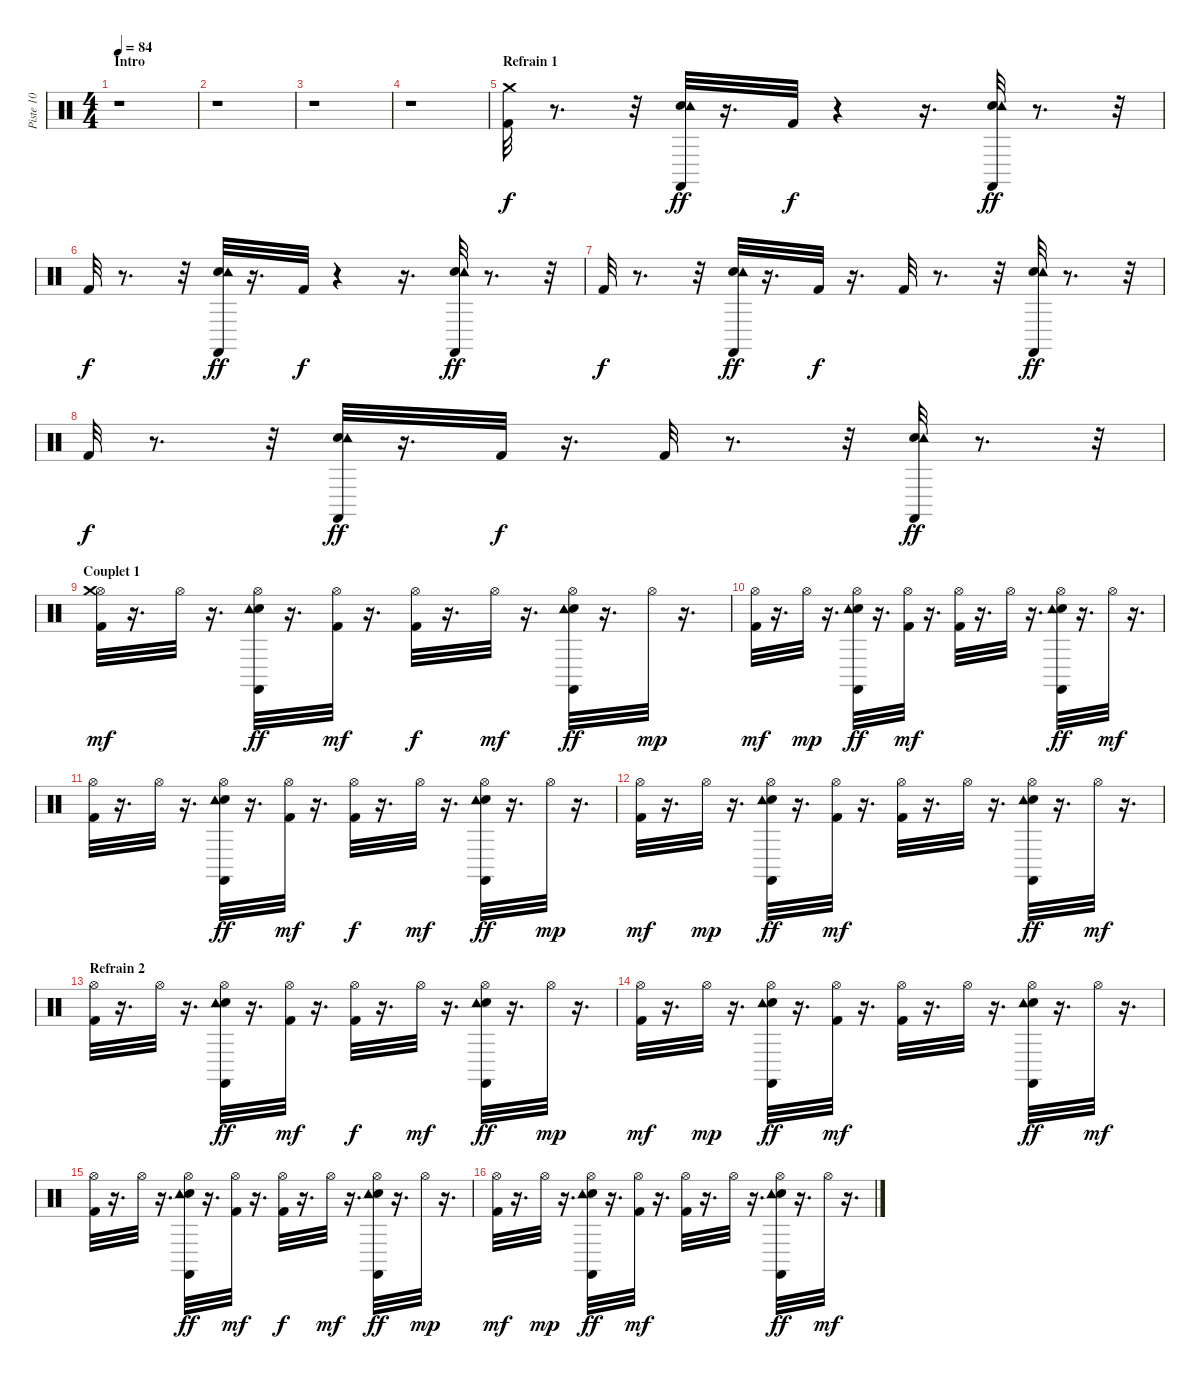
\track ("Piste 10" "Piste 10") {instrument percussion}
\staff {score}
\articulation defaults
\ts (4 4)
\section ("" "Intro")
\tempo 84
\clef neutral
\ks c
r.1{dy f} |
r.1 |
r.1 |
r.1 |
\section ("" "Refrain 1")
("Kick (hit) 2" "Crash medium (hit)").32 r.8{d} r.32 ("Hand Clap (hit)" "Tambourine (hit)" "Castanets (hit)").32{dy ff} r.16{d} "Kick (hit) 2".32{dy f} r.4 r.16{d} ("Hand Clap (hit)" "Tambourine (hit)" "Castanets (hit)").32{dy ff} r.8{d} r.32 |
"Kick (hit) 2".32{dy f} r.8{d} r.32 ("Hand Clap (hit)" "Tambourine (hit)" "Castanets (hit)").32{dy ff} r.16{d} "Kick (hit) 2".32{dy f} r.4 r.16{d} ("Hand Clap (hit)" "Tambourine (hit)" "Castanets (hit)").32{dy ff} r.8{d} r.32 |
"Kick (hit) 2".32{dy f} r.8{d} r.32 ("Hand Clap (hit)" "Tambourine (hit)" "Castanets (hit)").32{dy ff} r.16{d} "Kick (hit) 2".32{dy f} r.16{d} "Kick (hit) 2".32 r.8{d} r.32 ("Hand Clap (hit)" "Tambourine (hit)" "Castanets (hit)").32{dy ff} r.8{d} r.32 |
"Kick (hit) 2".32{dy f} r.8{d} r.32 ("Hand Clap (hit)" "Tambourine (hit)" "Castanets (hit)").32{dy ff} r.16{d} "Kick (hit) 2".32{dy f} r.16{d} "Kick (hit) 2".32 r.8{d} r.32 ("Hand Clap (hit)" "Tambourine (hit)" "Castanets (hit)").32{dy ff} r.8{d} r.32 |
\section ("" "Couplet 1")
("Kick (hit) 2" "Hi-Hat (open)" "Crash medium (hit)").32{dy mf} r.16{d} "Hi-Hat (open)".32 r.16{d} ("Hi-Hat (open)" "Hand Clap (hit)" "Tambourine (hit)" "Castanets (hit)").32{dy ff} r.16{d} ("Hi-Hat (open)" "Kick (hit) 2").32{dy mf} r.16{d} ("Hi-Hat (open)" "Kick (hit) 2").32{dy f} r.16{d} "Hi-Hat (open)".32{dy mf} r.16{d} ("Hi-Hat (open)" "Hand Clap (hit)" "Tambourine (hit)" "Castanets (hit)").32{dy ff} r.16{d} "Hi-Hat (open)".32{dy mp} r.16{d} |
("Kick (hit) 2" "Hi-Hat (open)").32{dy mf} r.16{d} "Hi-Hat (open)".32{dy mp} r.16{d} ("Hi-Hat (open)" "Hand Clap (hit)" "Tambourine (hit)" "Castanets (hit)").32{dy ff} r.16{d} ("Hi-Hat (open)" "Kick (hit) 2").32{dy mf} r.16{d} ("Hi-Hat (open)" "Kick (hit) 2").32 r.16{d} "Hi-Hat (open)".32 r.16{d} ("Hand Clap (hit)" "Hi-Hat (open)" "Tambourine (hit)" "Castanets (hit)").32{dy ff} r.16{d} "Hi-Hat (open)".32{dy mf} r.16{d} |
("Kick (hit) 2" "Hi-Hat (open)").32 r.16{d} "Hi-Hat (open)".32 r.16{d} ("Hi-Hat (open)" "Hand Clap (hit)" "Tambourine (hit)" "Castanets (hit)").32{dy ff} r.16{d} ("Hi-Hat (open)" "Kick (hit) 2").32{dy mf} r.16{d} ("Hi-Hat (open)" "Kick (hit) 2").32{dy f} r.16{d} "Hi-Hat (open)".32{dy mf} r.16{d} ("Hi-Hat (open)" "Hand Clap (hit)" "Tambourine (hit)" "Castanets (hit)").32{dy ff} r.16{d} "Hi-Hat (open)".32{dy mp} r.16{d} |
("Kick (hit) 2" "Hi-Hat (open)").32{dy mf} r.16{d} "Hi-Hat (open)".32{dy mp} r.16{d} ("Hi-Hat (open)" "Hand Clap (hit)" "Tambourine (hit)" "Castanets (hit)").32{dy ff} r.16{d} ("Hi-Hat (open)" "Kick (hit) 2").32{dy mf} r.16{d} ("Hi-Hat (open)" "Kick (hit) 2").32 r.16{d} "Hi-Hat (open)".32 r.16{d} ("Hand Clap (hit)" "Hi-Hat (open)" "Tambourine (hit)" "Castanets (hit)").32{dy ff} r.16{d} "Hi-Hat (open)".32{dy mf} r.16{d} |
\section ("" "Refrain 2")
("Kick (hit) 2" "Hi-Hat (open)").32 r.16{d} "Hi-Hat (open)".32 r.16{d} ("Hi-Hat (open)" "Hand Clap (hit)" "Tambourine (hit)" "Castanets (hit)").32{dy ff} r.16{d} ("Hi-Hat (open)" "Kick (hit) 2").32{dy mf} r.16{d} ("Hi-Hat (open)" "Kick (hit) 2").32{dy f} r.16{d} "Hi-Hat (open)".32{dy mf} r.16{d} ("Hi-Hat (open)" "Hand Clap (hit)" "Tambourine (hit)" "Castanets (hit)").32{dy ff} r.16{d} "Hi-Hat (open)".32{dy mp} r.16{d} |
("Kick (hit) 2" "Hi-Hat (open)").32{dy mf} r.16{d} "Hi-Hat (open)".32{dy mp} r.16{d} ("Hi-Hat (open)" "Hand Clap (hit)" "Tambourine (hit)" "Castanets (hit)").32{dy ff} r.16{d} ("Hi-Hat (open)" "Kick (hit) 2").32{dy mf} r.16{d} ("Hi-Hat (open)" "Kick (hit) 2").32 r.16{d} "Hi-Hat (open)".32 r.16{d} ("Hand Clap (hit)" "Hi-Hat (open)" "Tambourine (hit)" "Castanets (hit)").32{dy ff} r.16{d} "Hi-Hat (open)".32{dy mf} r.16{d} |
("Kick (hit) 2" "Hi-Hat (open)").32 r.16{d} "Hi-Hat (open)".32 r.16{d} ("Hi-Hat (open)" "Hand Clap (hit)" "Tambourine (hit)" "Castanets (hit)").32{dy ff} r.16{d} ("Hi-Hat (open)" "Kick (hit) 2").32{dy mf} r.16{d} ("Hi-Hat (open)" "Kick (hit) 2").32{dy f} r.16{d} "Hi-Hat (open)".32{dy mf} r.16{d} ("Hi-Hat (open)" "Hand Clap (hit)" "Tambourine (hit)" "Castanets (hit)").32{dy ff} r.16{d} "Hi-Hat (open)".32{dy mp} r.16{d} |
("Kick (hit) 2" "Hi-Hat (open)").32{dy mf} r.16{d} "Hi-Hat (open)".32{dy mp} r.16{d} ("Hi-Hat (open)" "Hand Clap (hit)" "Tambourine (hit)" "Castanets (hit)").32{dy ff} r.16{d} ("Hi-Hat (open)" "Kick (hit) 2").32{dy mf} r.16{d} ("Hi-Hat (open)" "Kick (hit) 2").32 r.16{d} "Hi-Hat (open)".32 r.16{d} ("Hand Clap (hit)" "Hi-Hat (open)" "Tambourine (hit)" "Castanets (hit)").32{dy ff} r.16{d} "Hi-Hat (open)".32{dy mf} r.16{d}
